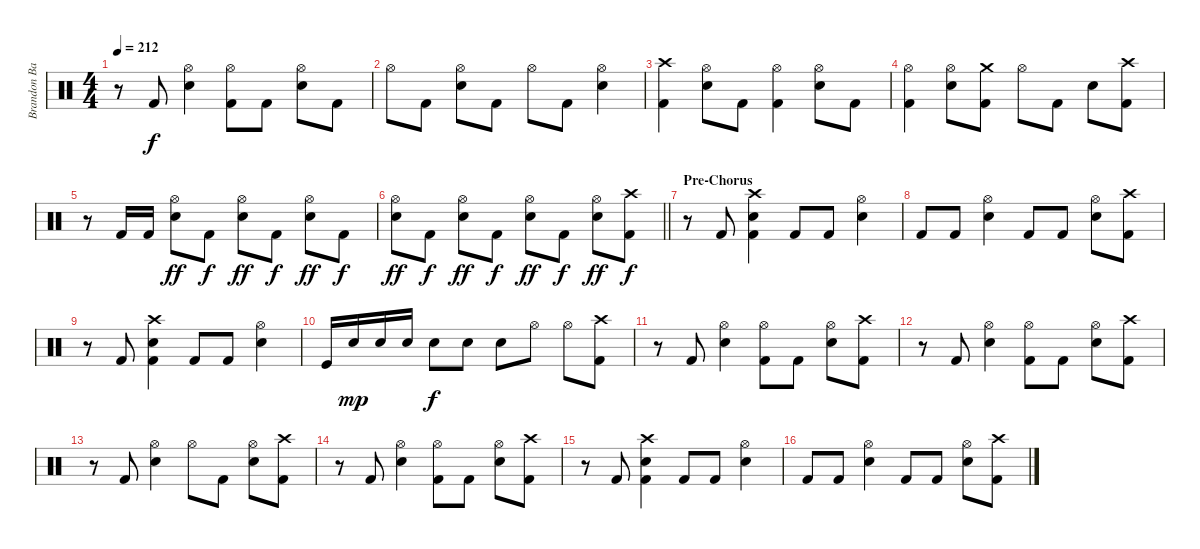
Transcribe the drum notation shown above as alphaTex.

\track ("Brandon Barnes - Drums" "Brandon Ba") {instrument percussion}
\staff {score}
\articulation defaults
\ts (4 4)
\tempo 212
\clef neutral
\ks c
r.8{dy f} "Kick (hit) 2".8 ("Snare (hit) 2" "Hi-Hat (open)").4 ("Kick (hit) 2" "Hi-Hat (open)").8 "Kick (hit) 2".8 ("Snare (hit) 2" "Hi-Hat (open)").8 "Kick (hit) 2".8 |
"Hi-Hat (open)".8 "Kick (hit) 2".8 ("Snare (hit) 2" "Hi-Hat (open)").8 "Kick (hit) 2".8 "Hi-Hat (open)".8 "Kick (hit) 2".8 ("Snare (hit) 2" "Hi-Hat (open)").4 |
("Kick (hit) 2" "Crash high (hit)").4 ("Snare (hit) 2" "Hi-Hat (open)").8 "Kick (hit) 2".8 ("Kick (hit) 2" "Hi-Hat (open)").4 ("Snare (hit) 2" "Hi-Hat (open)").8 "Kick (hit) 2".8 |
("Kick (hit) 2" "Hi-Hat (open)").4 ("Snare (hit) 2" "Hi-Hat (open)").8 ("Kick (hit) 2" "Crash medium (hit)").8 "Hi-Hat (open)".8 "Kick (hit) 2".8 "Snare (hit) 2".8 ("Kick (hit) 2" "Crash high (hit)").8 |
r.8 "Kick (hit) 2".16 "Kick (hit) 2".16 ("Snare (hit) 2" "Hi-Hat (open)").8{dy ff} "Kick (hit) 2".8{dy f} ("Snare (hit) 2" "Hi-Hat (open)").8{dy ff} "Kick (hit) 2".8{dy f} ("Snare (hit) 2" "Hi-Hat (open)").8{dy ff} "Kick (hit) 2".8{dy f} |
\barLineRight lightlight
("Snare (hit) 2" "Hi-Hat (open)").8{dy ff} "Kick (hit) 2".8{dy f} ("Snare (hit) 2" "Hi-Hat (open)").8{dy ff} "Kick (hit) 2".8{dy f} ("Snare (hit) 2" "Hi-Hat (open)").8{dy ff} "Kick (hit) 2".8{dy f} ("Snare (hit) 2" "Hi-Hat (open)").8{dy ff} ("Kick (hit) 2" "Crash high (hit)").8{dy f} |
\section ("" "Pre-Chorus")
r.8 "Kick (hit) 2".8 ("Kick (hit) 2" "Snare (hit) 2" "Crash high (hit)").4 "Kick (hit) 2".8 "Kick (hit) 2".8 ("Snare (hit) 2" "Hi-Hat (open)").4 |
"Kick (hit) 2".8 "Kick (hit) 2".8 ("Snare (hit) 2" "Hi-Hat (open)").4 "Kick (hit) 2".8 "Kick (hit) 2".8 ("Snare (hit) 2" "Hi-Hat (open)").8 ("Kick (hit) 2" "Crash high (hit)").8 |
r.8 "Kick (hit) 2".8 ("Kick (hit) 2" "Snare (hit) 2" "Crash high (hit)").4 "Kick (hit) 2".8 "Kick (hit) 2".8 ("Snare (hit) 2" "Hi-Hat (open)").4 |
"Kick (hit)".16 "Snare (hit) 2".16{dy mp} "Snare (hit) 2".16 "Snare (hit) 2".16 "Snare (hit) 2".8{dy f} "Snare (hit) 2".8 "Snare (hit) 2".8 "Hi-Hat (open)".8 "Hi-Hat (open)".8 ("Crash high (hit)" "Kick (hit) 2").8 |
r.8 "Kick (hit) 2".8 ("Snare (hit) 2" "Hi-Hat (open)").4 ("Kick (hit) 2" "Hi-Hat (open)").8 "Kick (hit) 2".8 ("Snare (hit) 2" "Hi-Hat (open)").8 ("Kick (hit) 2" "Crash high (hit)").8 |
r.8 "Kick (hit) 2".8 ("Snare (hit) 2" "Hi-Hat (open)").4 ("Kick (hit) 2" "Hi-Hat (open)").8 "Kick (hit) 2".8 ("Snare (hit) 2" "Hi-Hat (open)").8 ("Kick (hit) 2" "Crash high (hit)").8 |
r.8 "Kick (hit) 2".8 ("Snare (hit) 2" "Hi-Hat (open)").4 "Hi-Hat (open)".8 "Kick (hit) 2".8 ("Snare (hit) 2" "Hi-Hat (open)").8 ("Kick (hit) 2" "Crash high (hit)").8 |
r.8 "Kick (hit) 2".8 ("Snare (hit) 2" "Hi-Hat (open)").4 ("Kick (hit) 2" "Hi-Hat (open)").8 "Kick (hit) 2".8 ("Snare (hit) 2" "Hi-Hat (open)").8 ("Kick (hit) 2" "Crash high (hit)").8 |
r.8 "Kick (hit) 2".8 ("Kick (hit) 2" "Snare (hit) 2" "Crash high (hit)").4 "Kick (hit) 2".8 "Kick (hit) 2".8 ("Snare (hit) 2" "Hi-Hat (open)").4 |
"Kick (hit) 2".8 "Kick (hit) 2".8 ("Snare (hit) 2" "Hi-Hat (open)").4 "Kick (hit) 2".8 "Kick (hit) 2".8 ("Snare (hit) 2" "Hi-Hat (open)").8 ("Kick (hit) 2" "Crash high (hit)").8
